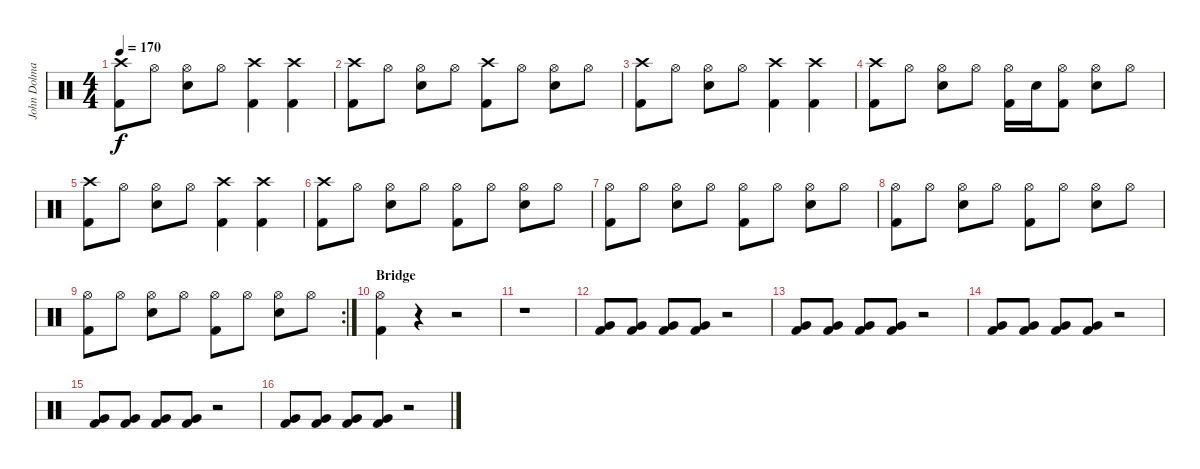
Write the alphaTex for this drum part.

\track ("John Dolmayan" "John Dolma") {instrument percussion}
\staff {score}
\articulation defaults
\ts (4 4)
\tempo 170
\clef neutral
\ks c
("Crash high (hit)" "Kick (hit) 2").8{dy f} "Hi-Hat (open)".8 ("Hi-Hat (open)" "Electric Snare (hit)").8 "Hi-Hat (open)".8 ("Crash high (hit)" "Kick (hit) 2").4 ("Crash high (hit)" "Kick (hit) 2").4 |
("Crash high (hit)" "Kick (hit) 2").8 "Hi-Hat (open)".8 ("Hi-Hat (open)" "Electric Snare (hit)").8 "Hi-Hat (open)".8 ("Crash high (hit)" "Kick (hit) 2").8 "Hi-Hat (open)".8 ("Hi-Hat (open)" "Electric Snare (hit)").8 "Hi-Hat (open)".8 |
("Crash high (hit)" "Kick (hit) 2").8 "Hi-Hat (open)".8 ("Hi-Hat (open)" "Electric Snare (hit)").8 "Hi-Hat (open)".8 ("Crash high (hit)" "Kick (hit) 2").4 ("Crash high (hit)" "Kick (hit) 2").4 |
("Crash high (hit)" "Kick (hit) 2").8 "Hi-Hat (open)".8 ("Hi-Hat (open)" "Electric Snare (hit)").8 "Hi-Hat (open)".8 ("Hi-Hat (open)" "Kick (hit) 2").16 "Electric Snare (hit)".16 ("Hi-Hat (open)" "Kick (hit) 2").8 ("Hi-Hat (open)" "Electric Snare (hit)").8 "Hi-Hat (open)".8 |
("Crash high (hit)" "Kick (hit) 2").8 "Hi-Hat (open)".8 ("Hi-Hat (open)" "Electric Snare (hit)").8 "Hi-Hat (open)".8 ("Crash high (hit)" "Kick (hit) 2").4 ("Crash high (hit)" "Kick (hit) 2").4 |
("Crash high (hit)" "Kick (hit) 2").8 "Hi-Hat (open)".8 ("Hi-Hat (open)" "Electric Snare (hit)").8 "Hi-Hat (open)".8 ("Hi-Hat (open)" "Kick (hit) 2").8 "Hi-Hat (open)".8 ("Hi-Hat (open)" "Electric Snare (hit)").8 "Hi-Hat (open)".8 |
("Hi-Hat (open)" "Kick (hit) 2").8 "Hi-Hat (open)".8 ("Hi-Hat (open)" "Electric Snare (hit)").8 "Hi-Hat (open)".8 ("Hi-Hat (open)" "Kick (hit) 2").8 "Hi-Hat (open)".8 ("Hi-Hat (open)" "Electric Snare (hit)").8 "Hi-Hat (open)".8 |
("Hi-Hat (open)" "Kick (hit) 2").8 "Hi-Hat (open)".8 ("Hi-Hat (open)" "Electric Snare (hit)").8 "Hi-Hat (open)".8 ("Hi-Hat (open)" "Kick (hit) 2").8 "Hi-Hat (open)".8 ("Hi-Hat (open)" "Electric Snare (hit)").8 "Hi-Hat (open)".8 |
\rc 2
("Hi-Hat (open)" "Kick (hit) 2").8 "Hi-Hat (open)".8 ("Hi-Hat (open)" "Electric Snare (hit)").8 "Hi-Hat (open)".8 ("Hi-Hat (open)" "Kick (hit) 2").8 "Hi-Hat (open)".8 ("Hi-Hat (open)" "Electric Snare (hit)").8 "Hi-Hat (open)".8 |
\section ("" "Bridge")
("Hi-Hat (open)" "Kick (hit) 2").4 r.4 r.2 |
r.1 |
("Very Low Tom (hit)" "Kick (hit) 2").8 ("Very Low Tom (hit)" "Kick (hit) 2").8 ("Very Low Tom (hit)" "Kick (hit) 2").8 ("Very Low Tom (hit)" "Kick (hit) 2").8 r.2 |
("Very Low Tom (hit)" "Kick (hit) 2").8 ("Very Low Tom (hit)" "Kick (hit) 2").8 ("Very Low Tom (hit)" "Kick (hit) 2").8 ("Very Low Tom (hit)" "Kick (hit) 2").8 r.2 |
("Very Low Tom (hit)" "Kick (hit) 2").8 ("Very Low Tom (hit)" "Kick (hit) 2").8 ("Very Low Tom (hit)" "Kick (hit) 2").8 ("Very Low Tom (hit)" "Kick (hit) 2").8 r.2 |
("Very Low Tom (hit)" "Kick (hit) 2").8 ("Very Low Tom (hit)" "Kick (hit) 2").8 ("Very Low Tom (hit)" "Kick (hit) 2").8 ("Very Low Tom (hit)" "Kick (hit) 2").8 r.2 |
("Very Low Tom (hit)" "Kick (hit) 2").8 ("Very Low Tom (hit)" "Kick (hit) 2").8 ("Very Low Tom (hit)" "Kick (hit) 2").8 ("Very Low Tom (hit)" "Kick (hit) 2").8 r.2
